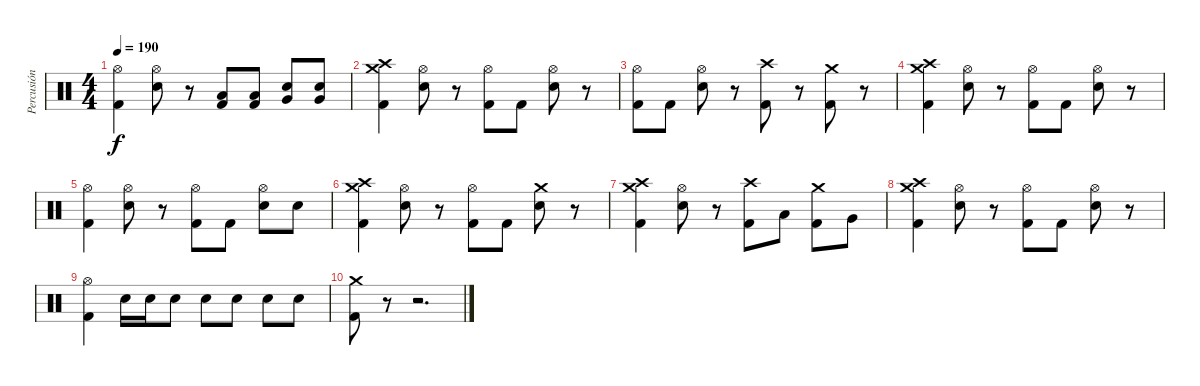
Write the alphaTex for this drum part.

\track ("Percusión" "Percusión") {instrument percussion}
\staff {score}
\articulation defaults
\ts (4 4)
\tempo 190
\clef neutral
\ks c
("Hi-Hat (open)" "Kick (hit) 2").4{dy f} ("Hi-Hat (open)" "Electric Snare (hit)").8 r.8 ("Low Tom (hit)" "Kick (hit) 2").8 ("Low Tom (hit)" "Kick (hit) 2").8 ("Very Low Tom (hit)" "Electric Snare (hit)").8 ("Very Low Tom (hit)" "Electric Snare (hit)").8 |
("Crash high (hit)" "Crash medium (hit)" "Kick (hit) 2").4 ("Hi-Hat (open)" "Electric Snare (hit)").8 r.8 ("Hi-Hat (open)" "Kick (hit) 2").8 "Kick (hit) 2".8 ("Hi-Hat (open)" "Electric Snare (hit)").8 r.8 |
("Hi-Hat (open)" "Kick (hit) 2").8 "Kick (hit) 2".8 ("Hi-Hat (open)" "Electric Snare (hit)").8 r.8 ("Crash high (hit)" "Kick (hit) 2").8 r.8 ("Crash medium (hit)" "Kick (hit) 2").8 r.8 |
("Crash high (hit)" "Crash medium (hit)" "Kick (hit) 2").4 ("Hi-Hat (open)" "Electric Snare (hit)").8 r.8 ("Hi-Hat (open)" "Kick (hit) 2").8 "Kick (hit) 2".8 ("Hi-Hat (open)" "Electric Snare (hit)").8 r.8 |
("Hi-Hat (open)" "Kick (hit) 2").4 ("Hi-Hat (open)" "Electric Snare (hit)").8 r.8 ("Hi-Hat (open)" "Kick (hit) 2").8 "Kick (hit) 2".8 ("Hi-Hat (open)" "Electric Snare (hit)").8 "Electric Snare (hit)".8 |
("Crash high (hit)" "Crash medium (hit)" "Kick (hit) 2").4 ("Hi-Hat (open)" "Electric Snare (hit)").8 r.8 ("Hi-Hat (open)" "Kick (hit) 2").8 "Kick (hit) 2".8 ("Crash medium (hit)" "Electric Snare (hit)").8 r.8 |
("Crash high (hit)" "Crash medium (hit)" "Kick (hit) 2").4 ("Hi-Hat (open)" "Electric Snare (hit)").8 r.8 ("Crash high (hit)" "Kick (hit) 2").8 "Low Tom (hit)".8 ("Crash medium (hit)" "Kick (hit) 2").8 "Very Low Tom (hit)".8 |
("Crash high (hit)" "Crash medium (hit)" "Kick (hit) 2").4 ("Hi-Hat (open)" "Electric Snare (hit)").8 r.8 ("Hi-Hat (open)" "Kick (hit) 2").8 "Kick (hit) 2".8 ("Hi-Hat (open)" "Electric Snare (hit)").8 r.8 |
("Hi-Hat (open)" "Kick (hit) 2").4 "Electric Snare (hit)".16 "Electric Snare (hit)".16 "Electric Snare (hit)".8 "Electric Snare (hit)".8 "Electric Snare (hit)".8 "Electric Snare (hit)".8 "Electric Snare (hit)".8 |
("Crash medium (hit)" "Kick (hit) 2").8 r.8 r.2{d}
